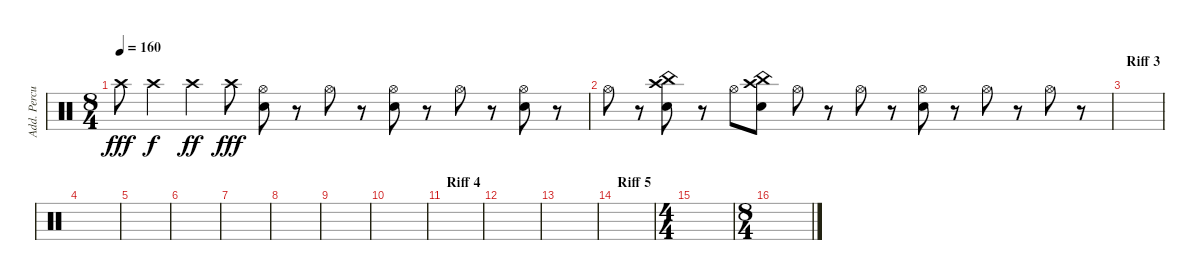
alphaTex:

\track ("Add. Percussion" "Add. Percu") {instrument percussion}
\staff {score}
\articulation defaults
\ts (8 4)
\tempo 160
\clef neutral
\ks c "Crash high (hit)".8{dy fff} "Crash high (hit)".4{dy f} "Crash high (hit)".4{dy ff} "Crash high (hit)".8{dy fff}
("Hi-Hat (open)" "Electric Snare (hit)").8 r.8 "Hi-Hat (open)".8 r.8 ("Hi-Hat (open)" "Electric Snare (hit)").8 r.8 "Hi-Hat (open)".8 r.8 ("Hi-Hat (open)" "Electric Snare (hit)").8 r.8 |
"Hi-Hat (open)".8 r.8 ("China (hit)" "Crash high (hit)" "Electric Snare (hit)").8 r.8 "Hi-Hat (open)".8 ("China (hit)" "Crash high (hit)" "Electric Snare (hit)").8 "Hi-Hat (open)".8 r.8 "Hi-Hat (open)".8 r.8 ("Hi-Hat (open)" "Electric Snare (hit)").8 r.8 "Hi-Hat (open)".8 r.8 "Hi-Hat (open)".8 r.8 |
\section ("" "Riff 3")
|
|
|
|
|
|
|
|
\section ("" "Riff 4")
|
|
|
\section ("" "Riff 5")
|
\ts (4 4)
|
\ts (8 4)
